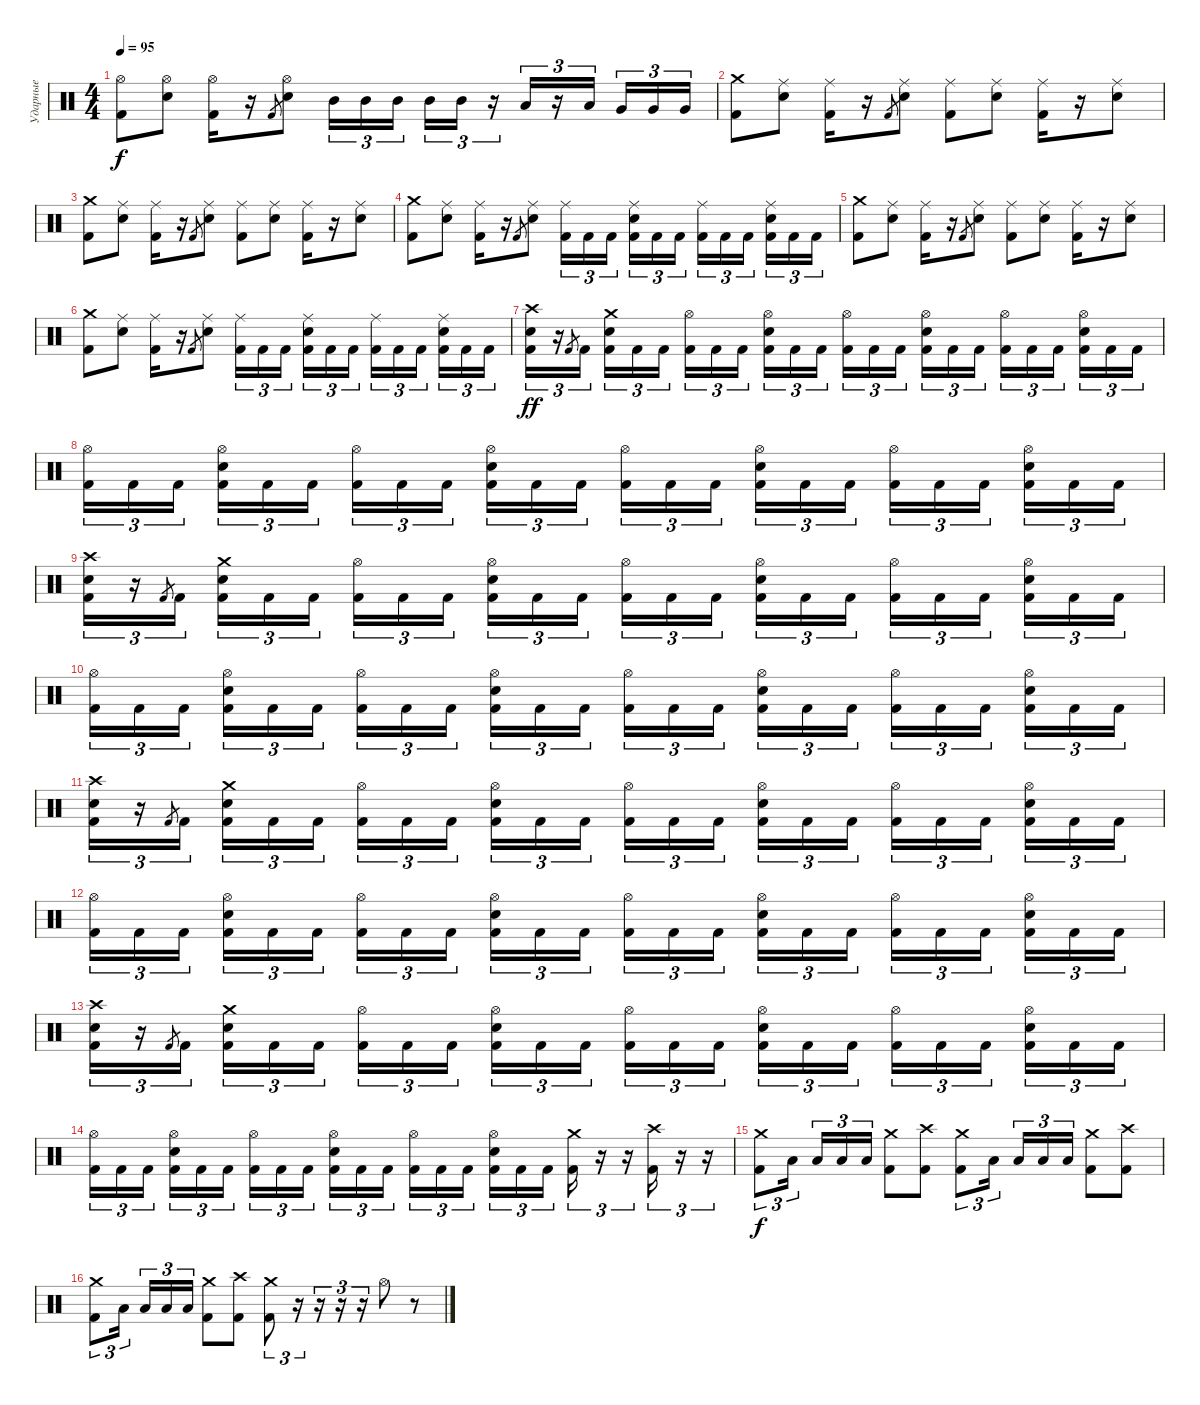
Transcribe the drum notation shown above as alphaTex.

\track ("Ударные" "Ударные") {instrument percussion}
\staff
\articulation defaults
\ts (4 4)
\tempo 95
\clef neutral
\ks c
("Hi-Hat (open)" "Kick (hit) 2").8{dy f} ("Electric Snare (hit)" "Hi-Hat (open)").8 ("Hi-Hat (open)" "Kick (hit) 2").16 r.16 "Kick (hit) 2".8{gr} ("Electric Snare (hit)" "Hi-Hat (open)").8 "Mid Tom (hit)".16{tu (3 2)} "Mid Tom (hit)".16{tu (3 2)} "Mid Tom (hit)".16{tu (3 2) beam splitsecondary} "Mid Tom (hit)".16{tu (3 2)} "Mid Tom (hit)".16{tu (3 2)} r.16{tu (3 2)} "Low Tom (hit)".16{tu (3 2)} r.16{tu (3 2)} "Low Tom (hit)".16{tu (3 2) beam splitsecondary} "Very Low Tom (hit)".16{tu (3 2)} "Very Low Tom (hit)".16{tu (3 2)} "Very Low Tom (hit)".16{tu (3 2)} |
("Crash medium (hit)" "Kick (hit) 2").8 ("Ride (middle)" "Electric Snare (hit)").8 ("Ride (middle)" "Kick (hit) 2").16 r.16 "Kick (hit) 2".8{gr} ("Ride (middle)" "Electric Snare (hit)").8 ("Ride (middle)" "Kick (hit) 2").8 ("Ride (middle)" "Electric Snare (hit)").8 ("Ride (middle)" "Kick (hit) 2").16 r.16 ("Electric Snare (hit)" "Ride (middle)").8 |
("Crash medium (hit)" "Kick (hit) 2").8 ("Electric Snare (hit)" "Ride (middle)").8 ("Ride (middle)" "Kick (hit) 2").16 r.16 "Kick (hit) 2".8{gr} ("Electric Snare (hit)" "Ride (middle)").8 ("Ride (middle)" "Kick (hit) 2").8 ("Electric Snare (hit)" "Ride (middle)").8 ("Ride (middle)" "Kick (hit) 2").16 r.16 ("Ride (middle)" "Electric Snare (hit)").8 |
("Crash medium (hit)" "Kick (hit) 2").8 ("Electric Snare (hit)" "Ride (middle)").8 ("Ride (middle)" "Kick (hit) 2").16 r.16 "Kick (hit) 2".8{gr} ("Electric Snare (hit)" "Ride (middle)").8 ("Ride (middle)" "Kick (hit) 2").16{tu (3 2)} "Kick (hit) 2".16{tu (3 2)} "Kick (hit) 2".16{tu (3 2) beam splitsecondary} ("Ride (middle)" "Electric Snare (hit)" "Kick (hit) 2").16{tu (3 2)} "Kick (hit) 2".16{tu (3 2)} "Kick (hit) 2".16{tu (3 2)} ("Ride (middle)" "Kick (hit) 2").16{tu (3 2)} "Kick (hit) 2".16{tu (3 2)} "Kick (hit) 2".16{tu (3 2) beam splitsecondary} ("Ride (middle)" "Electric Snare (hit)" "Kick (hit) 2").16{tu (3 2)} "Kick (hit) 2".16{tu (3 2)} "Kick (hit) 2".16{tu (3 2)} |
("Crash medium (hit)" "Kick (hit) 2").8 ("Electric Snare (hit)" "Ride (middle)").8 ("Ride (middle)" "Kick (hit) 2").16 r.16 "Kick (hit) 2".8{gr} ("Electric Snare (hit)" "Ride (middle)").8 ("Ride (middle)" "Kick (hit) 2").8 ("Electric Snare (hit)" "Ride (middle)").8 ("Ride (middle)" "Kick (hit) 2").16 r.16 ("Ride (middle)" "Electric Snare (hit)").8 |
("Crash medium (hit)" "Kick (hit) 2").8 ("Electric Snare (hit)" "Ride (middle)").8 ("Ride (middle)" "Kick (hit) 2").16 r.16 "Kick (hit) 2".8{gr} ("Electric Snare (hit)" "Ride (middle)").8 ("Ride (middle)" "Kick (hit) 2").16{tu (3 2)} "Kick (hit) 2".16{tu (3 2)} "Kick (hit) 2".16{tu (3 2) beam splitsecondary} ("Ride (middle)" "Electric Snare (hit)" "Kick (hit) 2").16{tu (3 2)} "Kick (hit) 2".16{tu (3 2)} "Kick (hit) 2".16{tu (3 2)} ("Ride (middle)" "Kick (hit) 2").16{tu (3 2)} "Kick (hit) 2".16{tu (3 2)} "Kick (hit) 2".16{tu (3 2) beam splitsecondary} ("Ride (middle)" "Electric Snare (hit)" "Kick (hit) 2").16{tu (3 2)} "Kick (hit) 2".16{tu (3 2)} "Kick (hit) 2".16{tu (3 2)} |
("Crash high (hit)" "Electric Snare (hit)" "Kick (hit) 2").16{tu (3 2) dy ff} r.16{tu (3 2)} "Kick (hit) 2".8{gr} "Kick (hit) 2".16{tu (3 2) beam splitsecondary} ("Crash medium (hit)" "Electric Snare (hit)" "Kick (hit) 2").16{tu (3 2)} "Kick (hit) 2".16{tu (3 2)} "Kick (hit) 2".16{tu (3 2)} ("Hi-Hat (open)" "Kick (hit) 2").16{tu (3 2)} "Kick (hit) 2".16{tu (3 2)} "Kick (hit) 2".16{tu (3 2) beam splitsecondary} ("Hi-Hat (open)" "Electric Snare (hit)" "Kick (hit) 2").16{tu (3 2)} "Kick (hit) 2".16{tu (3 2)} "Kick (hit) 2".16{tu (3 2)} ("Hi-Hat (open)" "Kick (hit) 2").16{tu (3 2)} "Kick (hit) 2".16{tu (3 2)} "Kick (hit) 2".16{tu (3 2) beam splitsecondary} ("Hi-Hat (open)" "Electric Snare (hit)" "Kick (hit) 2").16{tu (3 2)} "Kick (hit) 2".16{tu (3 2)} "Kick (hit) 2".16{tu (3 2)} ("Hi-Hat (open)" "Kick (hit) 2").16{tu (3 2)} "Kick (hit) 2".16{tu (3 2)} "Kick (hit) 2".16{tu (3 2) beam splitsecondary} ("Hi-Hat (open)" "Electric Snare (hit)" "Kick (hit) 2").16{tu (3 2)} "Kick (hit) 2".16{tu (3 2)} "Kick (hit) 2".16{tu (3 2)} |
("Hi-Hat (open)" "Kick (hit) 2").16{tu (3 2)} "Kick (hit) 2".16{tu (3 2)} "Kick (hit) 2".16{tu (3 2) beam splitsecondary} ("Hi-Hat (open)" "Electric Snare (hit)" "Kick (hit) 2").16{tu (3 2)} "Kick (hit) 2".16{tu (3 2)} "Kick (hit) 2".16{tu (3 2)} ("Hi-Hat (open)" "Kick (hit) 2").16{tu (3 2)} "Kick (hit) 2".16{tu (3 2)} "Kick (hit) 2".16{tu (3 2) beam splitsecondary} ("Hi-Hat (open)" "Electric Snare (hit)" "Kick (hit) 2").16{tu (3 2)} "Kick (hit) 2".16{tu (3 2)} "Kick (hit) 2".16{tu (3 2)} ("Hi-Hat (open)" "Kick (hit) 2").16{tu (3 2)} "Kick (hit) 2".16{tu (3 2)} "Kick (hit) 2".16{tu (3 2) beam splitsecondary} ("Hi-Hat (open)" "Electric Snare (hit)" "Kick (hit) 2").16{tu (3 2)} "Kick (hit) 2".16{tu (3 2)} "Kick (hit) 2".16{tu (3 2)} ("Hi-Hat (open)" "Kick (hit) 2").16{tu (3 2)} "Kick (hit) 2".16{tu (3 2)} "Kick (hit) 2".16{tu (3 2) beam splitsecondary} ("Hi-Hat (open)" "Electric Snare (hit)" "Kick (hit) 2").16{tu (3 2)} "Kick (hit) 2".16{tu (3 2)} "Kick (hit) 2".16{tu (3 2)} |
("Crash high (hit)" "Electric Snare (hit)" "Kick (hit) 2").16{tu (3 2)} r.16{tu (3 2)} "Kick (hit) 2".8{gr} "Kick (hit) 2".16{tu (3 2) beam splitsecondary} ("Crash medium (hit)" "Electric Snare (hit)" "Kick (hit) 2").16{tu (3 2)} "Kick (hit) 2".16{tu (3 2)} "Kick (hit) 2".16{tu (3 2)} ("Hi-Hat (open)" "Kick (hit) 2").16{tu (3 2)} "Kick (hit) 2".16{tu (3 2)} "Kick (hit) 2".16{tu (3 2) beam splitsecondary} ("Hi-Hat (open)" "Electric Snare (hit)" "Kick (hit) 2").16{tu (3 2)} "Kick (hit) 2".16{tu (3 2)} "Kick (hit) 2".16{tu (3 2)} ("Hi-Hat (open)" "Kick (hit) 2").16{tu (3 2)} "Kick (hit) 2".16{tu (3 2)} "Kick (hit) 2".16{tu (3 2) beam splitsecondary} ("Hi-Hat (open)" "Electric Snare (hit)" "Kick (hit) 2").16{tu (3 2)} "Kick (hit) 2".16{tu (3 2)} "Kick (hit) 2".16{tu (3 2)} ("Hi-Hat (open)" "Kick (hit) 2").16{tu (3 2)} "Kick (hit) 2".16{tu (3 2)} "Kick (hit) 2".16{tu (3 2) beam splitsecondary} ("Hi-Hat (open)" "Electric Snare (hit)" "Kick (hit) 2").16{tu (3 2)} "Kick (hit) 2".16{tu (3 2)} "Kick (hit) 2".16{tu (3 2)} |
("Hi-Hat (open)" "Kick (hit) 2").16{tu (3 2)} "Kick (hit) 2".16{tu (3 2)} "Kick (hit) 2".16{tu (3 2) beam splitsecondary} ("Hi-Hat (open)" "Electric Snare (hit)" "Kick (hit) 2").16{tu (3 2)} "Kick (hit) 2".16{tu (3 2)} "Kick (hit) 2".16{tu (3 2)} ("Hi-Hat (open)" "Kick (hit) 2").16{tu (3 2)} "Kick (hit) 2".16{tu (3 2)} "Kick (hit) 2".16{tu (3 2) beam splitsecondary} ("Hi-Hat (open)" "Electric Snare (hit)" "Kick (hit) 2").16{tu (3 2)} "Kick (hit) 2".16{tu (3 2)} "Kick (hit) 2".16{tu (3 2)} ("Hi-Hat (open)" "Kick (hit) 2").16{tu (3 2)} "Kick (hit) 2".16{tu (3 2)} "Kick (hit) 2".16{tu (3 2) beam splitsecondary} ("Hi-Hat (open)" "Electric Snare (hit)" "Kick (hit) 2").16{tu (3 2)} "Kick (hit) 2".16{tu (3 2)} "Kick (hit) 2".16{tu (3 2)} ("Hi-Hat (open)" "Kick (hit) 2").16{tu (3 2)} "Kick (hit) 2".16{tu (3 2)} "Kick (hit) 2".16{tu (3 2) beam splitsecondary} ("Hi-Hat (open)" "Electric Snare (hit)" "Kick (hit) 2").16{tu (3 2)} "Kick (hit) 2".16{tu (3 2)} "Kick (hit) 2".16{tu (3 2)} |
("Crash high (hit)" "Electric Snare (hit)" "Kick (hit) 2").16{tu (3 2)} r.16{tu (3 2)} "Kick (hit) 2".8{gr} "Kick (hit) 2".16{tu (3 2) beam splitsecondary} ("Crash medium (hit)" "Electric Snare (hit)" "Kick (hit) 2").16{tu (3 2)} "Kick (hit) 2".16{tu (3 2)} "Kick (hit) 2".16{tu (3 2)} ("Hi-Hat (open)" "Kick (hit) 2").16{tu (3 2)} "Kick (hit) 2".16{tu (3 2)} "Kick (hit) 2".16{tu (3 2) beam splitsecondary} ("Hi-Hat (open)" "Electric Snare (hit)" "Kick (hit) 2").16{tu (3 2)} "Kick (hit) 2".16{tu (3 2)} "Kick (hit) 2".16{tu (3 2)} ("Hi-Hat (open)" "Kick (hit) 2").16{tu (3 2)} "Kick (hit) 2".16{tu (3 2)} "Kick (hit) 2".16{tu (3 2) beam splitsecondary} ("Hi-Hat (open)" "Electric Snare (hit)" "Kick (hit) 2").16{tu (3 2)} "Kick (hit) 2".16{tu (3 2)} "Kick (hit) 2".16{tu (3 2)} ("Hi-Hat (open)" "Kick (hit) 2").16{tu (3 2)} "Kick (hit) 2".16{tu (3 2)} "Kick (hit) 2".16{tu (3 2) beam splitsecondary} ("Hi-Hat (open)" "Electric Snare (hit)" "Kick (hit) 2").16{tu (3 2)} "Kick (hit) 2".16{tu (3 2)} "Kick (hit) 2".16{tu (3 2)} |
("Hi-Hat (open)" "Kick (hit) 2").16{tu (3 2)} "Kick (hit) 2".16{tu (3 2)} "Kick (hit) 2".16{tu (3 2) beam splitsecondary} ("Hi-Hat (open)" "Electric Snare (hit)" "Kick (hit) 2").16{tu (3 2)} "Kick (hit) 2".16{tu (3 2)} "Kick (hit) 2".16{tu (3 2)} ("Hi-Hat (open)" "Kick (hit) 2").16{tu (3 2)} "Kick (hit) 2".16{tu (3 2)} "Kick (hit) 2".16{tu (3 2) beam splitsecondary} ("Hi-Hat (open)" "Electric Snare (hit)" "Kick (hit) 2").16{tu (3 2)} "Kick (hit) 2".16{tu (3 2)} "Kick (hit) 2".16{tu (3 2)} ("Hi-Hat (open)" "Kick (hit) 2").16{tu (3 2)} "Kick (hit) 2".16{tu (3 2)} "Kick (hit) 2".16{tu (3 2) beam splitsecondary} ("Hi-Hat (open)" "Electric Snare (hit)" "Kick (hit) 2").16{tu (3 2)} "Kick (hit) 2".16{tu (3 2)} "Kick (hit) 2".16{tu (3 2)} ("Hi-Hat (open)" "Kick (hit) 2").16{tu (3 2)} "Kick (hit) 2".16{tu (3 2)} "Kick (hit) 2".16{tu (3 2) beam splitsecondary} ("Hi-Hat (open)" "Electric Snare (hit)" "Kick (hit) 2").16{tu (3 2)} "Kick (hit) 2".16{tu (3 2)} "Kick (hit) 2".16{tu (3 2)} |
("Crash high (hit)" "Electric Snare (hit)" "Kick (hit) 2").16{tu (3 2)} r.16{tu (3 2)} "Kick (hit) 2".8{gr} "Kick (hit) 2".16{tu (3 2) beam splitsecondary} ("Crash medium (hit)" "Electric Snare (hit)" "Kick (hit) 2").16{tu (3 2)} "Kick (hit) 2".16{tu (3 2)} "Kick (hit) 2".16{tu (3 2)} ("Hi-Hat (open)" "Kick (hit) 2").16{tu (3 2)} "Kick (hit) 2".16{tu (3 2)} "Kick (hit) 2".16{tu (3 2) beam splitsecondary} ("Hi-Hat (open)" "Electric Snare (hit)" "Kick (hit) 2").16{tu (3 2)} "Kick (hit) 2".16{tu (3 2)} "Kick (hit) 2".16{tu (3 2)} ("Hi-Hat (open)" "Kick (hit) 2").16{tu (3 2)} "Kick (hit) 2".16{tu (3 2)} "Kick (hit) 2".16{tu (3 2) beam splitsecondary} ("Hi-Hat (open)" "Electric Snare (hit)" "Kick (hit) 2").16{tu (3 2)} "Kick (hit) 2".16{tu (3 2)} "Kick (hit) 2".16{tu (3 2)} ("Hi-Hat (open)" "Kick (hit) 2").16{tu (3 2)} "Kick (hit) 2".16{tu (3 2)} "Kick (hit) 2".16{tu (3 2) beam splitsecondary} ("Hi-Hat (open)" "Electric Snare (hit)" "Kick (hit) 2").16{tu (3 2)} "Kick (hit) 2".16{tu (3 2)} "Kick (hit) 2".16{tu (3 2)} |
("Hi-Hat (open)" "Kick (hit) 2").16{tu (3 2)} "Kick (hit) 2".16{tu (3 2)} "Kick (hit) 2".16{tu (3 2) beam splitsecondary} ("Hi-Hat (open)" "Electric Snare (hit)" "Kick (hit) 2").16{tu (3 2)} "Kick (hit) 2".16{tu (3 2)} "Kick (hit) 2".16{tu (3 2)} ("Hi-Hat (open)" "Kick (hit) 2").16{tu (3 2)} "Kick (hit) 2".16{tu (3 2)} "Kick (hit) 2".16{tu (3 2) beam splitsecondary} ("Hi-Hat (open)" "Electric Snare (hit)" "Kick (hit) 2").16{tu (3 2)} "Kick (hit) 2".16{tu (3 2)} "Kick (hit) 2".16{tu (3 2)} ("Hi-Hat (open)" "Kick (hit) 2").16{tu (3 2)} "Kick (hit) 2".16{tu (3 2)} "Kick (hit) 2".16{tu (3 2) beam splitsecondary} ("Hi-Hat (open)" "Electric Snare (hit)" "Kick (hit) 2").16{tu (3 2)} "Kick (hit) 2".16{tu (3 2)} "Kick (hit) 2".16{tu (3 2)} ("Crash medium (hit)" "Kick (hit) 2").16{tu (3 2)} r.16{tu (3 2)} r.16{tu (3 2)} ("Crash high (hit)" "Kick (hit) 2").16{tu (3 2)} r.16{tu (3 2)} r.16{tu (3 2)} |
("Crash medium (hit)" "Kick (hit) 2").8{tu (3 2) dy f} "Low Tom (hit)".16{tu (3 2) beam splitsecondary} "Low Tom (hit)".16{tu (3 2)} "Low Tom (hit)".16{tu (3 2)} "Low Tom (hit)".16{tu (3 2)} ("Crash medium (hit)" "Kick (hit) 2").8 ("Crash high (hit)" "Kick (hit) 2").8 ("Crash medium (hit)" "Kick (hit) 2").8{tu (3 2)} "Low Tom (hit)".16{tu (3 2) beam splitsecondary} "Low Tom (hit)".16{tu (3 2)} "Low Tom (hit)".16{tu (3 2)} "Low Tom (hit)".16{tu (3 2)} ("Crash medium (hit)" "Kick (hit) 2").8 ("Crash high (hit)" "Kick (hit) 2").8 |
("Crash medium (hit)" "Kick (hit) 2").8{tu (3 2)} "Low Tom (hit)".16{tu (3 2) beam splitsecondary} "Low Tom (hit)".16{tu (3 2)} "Low Tom (hit)".16{tu (3 2)} "Low Tom (hit)".16{tu (3 2)} ("Crash medium (hit)" "Kick (hit) 2").8 ("Crash high (hit)" "Kick (hit) 2").8 ("Crash medium (hit)" "Kick (hit) 2").8{tu (3 2)} r.16{tu (3 2)} r.16{tu (3 2)} r.16{tu (3 2)} r.16{tu (3 2)} "Hi-Hat (open)".8 r.8
